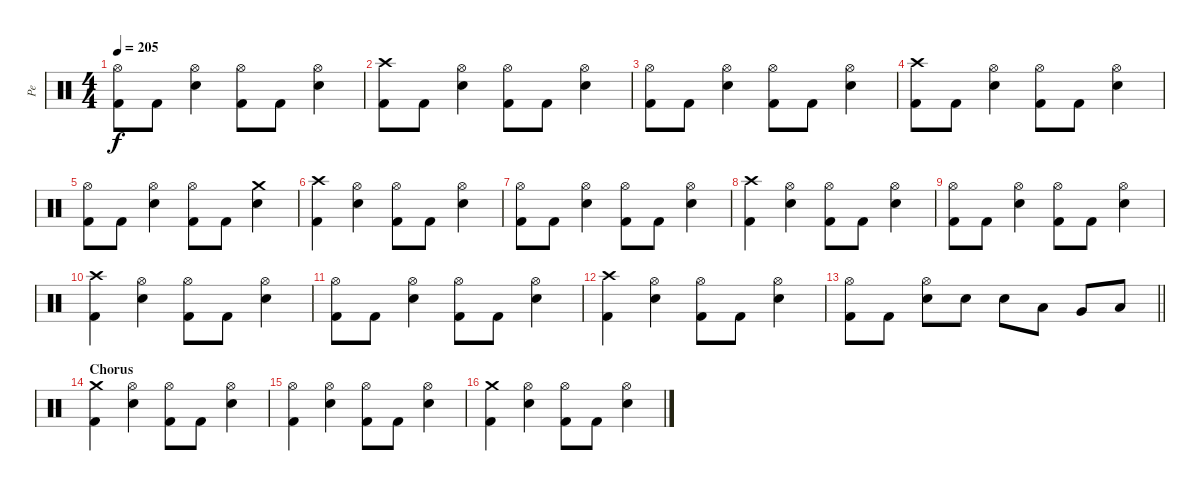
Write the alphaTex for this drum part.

\track ("Pe" "Pe") {instrument percussion}
\staff {score}
\articulation defaults
\ts (4 4)
\tempo 205
\clef neutral
\ks c
("Hi-Hat (open)" "Kick (hit) 2").8{dy f} "Kick (hit) 2".8 ("Hi-Hat (open)" "Electric Snare (hit)").4 ("Hi-Hat (open)" "Kick (hit) 2").8 "Kick (hit) 2".8 ("Hi-Hat (open)" "Electric Snare (hit)").4 |
("Crash high (hit)" "Kick (hit) 2").8 "Kick (hit) 2".8 ("Hi-Hat (open)" "Electric Snare (hit)").4 ("Hi-Hat (open)" "Kick (hit) 2").8 "Kick (hit) 2".8 ("Hi-Hat (open)" "Electric Snare (hit)").4 |
("Hi-Hat (open)" "Kick (hit) 2").8 "Kick (hit) 2".8 ("Hi-Hat (open)" "Electric Snare (hit)").4 ("Hi-Hat (open)" "Kick (hit) 2").8 "Kick (hit) 2".8 ("Hi-Hat (open)" "Electric Snare (hit)").4 |
("Crash high (hit)" "Kick (hit) 2").8 "Kick (hit) 2".8 ("Hi-Hat (open)" "Electric Snare (hit)").4 ("Hi-Hat (open)" "Kick (hit) 2").8 "Kick (hit) 2".8 ("Hi-Hat (open)" "Electric Snare (hit)").4 |
("Hi-Hat (open)" "Kick (hit) 2").8 "Kick (hit) 2".8 ("Hi-Hat (open)" "Electric Snare (hit)").4 ("Hi-Hat (open)" "Kick (hit) 2").8 "Kick (hit) 2".8 ("Crash medium (hit)" "Electric Snare (hit)").4 |
("Crash high (hit)" "Kick (hit) 2").4 ("Hi-Hat (open)" "Electric Snare (hit)").4 ("Hi-Hat (open)" "Kick (hit) 2").8 "Kick (hit) 2".8 ("Hi-Hat (open)" "Electric Snare (hit)").4 |
("Hi-Hat (open)" "Kick (hit) 2").8 "Kick (hit) 2".8 ("Hi-Hat (open)" "Electric Snare (hit)").4 ("Hi-Hat (open)" "Kick (hit) 2").8 "Kick (hit) 2".8 ("Hi-Hat (open)" "Electric Snare (hit)").4 |
("Crash high (hit)" "Kick (hit) 2").4 ("Hi-Hat (open)" "Electric Snare (hit)").4 ("Hi-Hat (open)" "Kick (hit) 2").8 "Kick (hit) 2".8 ("Hi-Hat (open)" "Electric Snare (hit)").4 |
("Hi-Hat (open)" "Kick (hit) 2").8 "Kick (hit) 2".8 ("Hi-Hat (open)" "Electric Snare (hit)").4 ("Hi-Hat (open)" "Kick (hit) 2").8 "Kick (hit) 2".8 ("Hi-Hat (open)" "Electric Snare (hit)").4 |
("Crash high (hit)" "Kick (hit) 2").4 ("Hi-Hat (open)" "Electric Snare (hit)").4 ("Hi-Hat (open)" "Kick (hit) 2").8 "Kick (hit) 2".8 ("Hi-Hat (open)" "Electric Snare (hit)").4 |
("Hi-Hat (open)" "Kick (hit) 2").8 "Kick (hit) 2".8 ("Hi-Hat (open)" "Electric Snare (hit)").4 ("Hi-Hat (open)" "Kick (hit) 2").8 "Kick (hit) 2".8 ("Hi-Hat (open)" "Electric Snare (hit)").4 |
("Crash high (hit)" "Kick (hit) 2").4 ("Hi-Hat (open)" "Electric Snare (hit)").4 ("Hi-Hat (open)" "Kick (hit) 2").8 "Kick (hit) 2".8 ("Hi-Hat (open)" "Electric Snare (hit)").4 |
\barLineRight lightlight
("Hi-Hat (open)" "Kick (hit) 2").8 "Kick (hit) 2".8 ("Hi-Hat (open)" "Electric Snare (hit)").8 "Electric Snare (hit)".8 "Electric Snare (hit)".8 "Low Tom (hit)".8 "Very Low Tom (hit)".8 "Low Floor Tom (hit)".8 |
\section ("" "Chorus")
("Crash medium (hit)" "Kick (hit) 2").4 ("Hi-Hat (open)" "Electric Snare (hit)").4 ("Hi-Hat (open)" "Kick (hit) 2").8 "Kick (hit) 2".8 ("Hi-Hat (open)" "Electric Snare (hit)").4 |
("Hi-Hat (open)" "Kick (hit) 2").4 ("Hi-Hat (open)" "Electric Snare (hit)").4 ("Hi-Hat (open)" "Kick (hit) 2").8 "Kick (hit) 2".8 ("Hi-Hat (open)" "Electric Snare (hit)").4 |
("Crash medium (hit)" "Kick (hit) 2").4 ("Hi-Hat (open)" "Electric Snare (hit)").4 ("Hi-Hat (open)" "Kick (hit) 2").8 "Kick (hit) 2".8 ("Hi-Hat (open)" "Electric Snare (hit)").4
